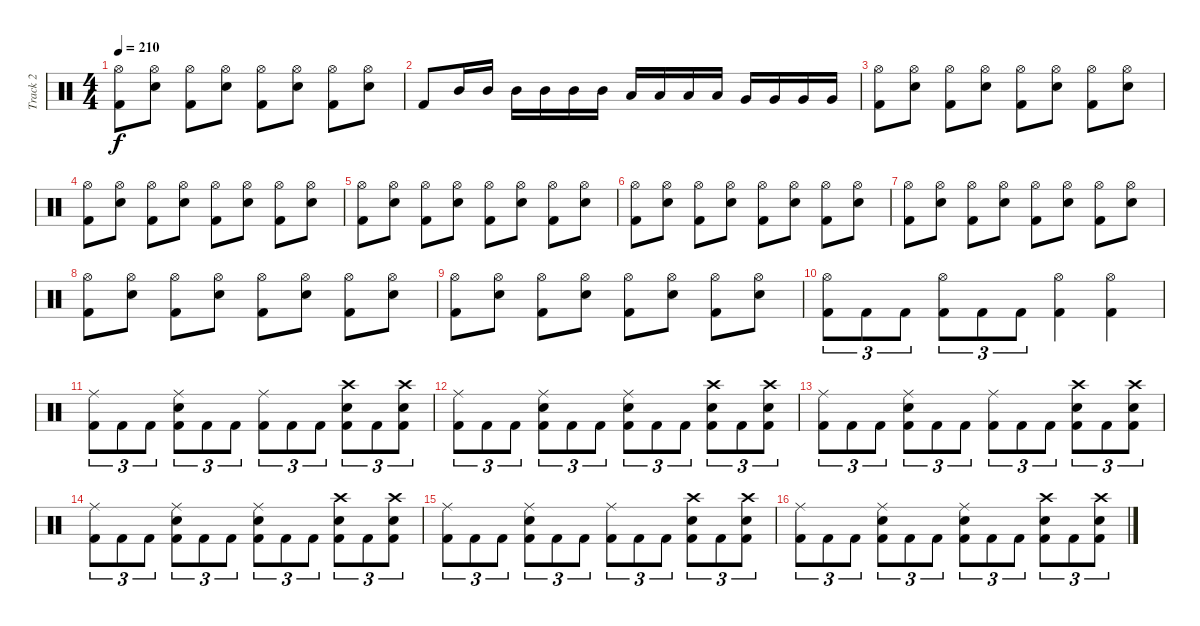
\track ("Track 2" "Track 2") {instrument percussion}
\staff {score}
\articulation defaults
\ts (4 4)
\tempo 210
\clef neutral
\ks c
("Hi-Hat (open)" "Kick (hit) 2").8{dy f} ("Hi-Hat (open)" "Snare (hit) 2").8 ("Hi-Hat (open)" "Kick (hit) 2").8 ("Hi-Hat (open)" "Snare (hit) 2").8 ("Hi-Hat (open)" "Kick (hit) 2").8 ("Hi-Hat (open)" "Snare (hit) 2").8 ("Hi-Hat (open)" "Kick (hit) 2").8 ("Hi-Hat (open)" "Snare (hit) 2").8 |
"Kick (hit) 2".8 "Mid Tom (hit)".16 "Mid Tom (hit)".16 "Mid Tom (hit)".16 "Mid Tom (hit)".16 "Mid Tom (hit)".16 "Mid Tom (hit)".16 "Low Tom (hit)".16 "Low Tom (hit)".16 "Low Tom (hit)".16 "Low Tom (hit)".16 "Very Low Tom (hit)".16 "Very Low Tom (hit)".16 "Very Low Tom (hit)".16 "Very Low Tom (hit)".16 |
("Hi-Hat (open)" "Kick (hit) 2").8 ("Hi-Hat (open)" "Snare (hit) 2").8 ("Hi-Hat (open)" "Kick (hit) 2").8 ("Hi-Hat (open)" "Snare (hit) 2").8 ("Hi-Hat (open)" "Kick (hit) 2").8 ("Hi-Hat (open)" "Snare (hit) 2").8 ("Hi-Hat (open)" "Kick (hit) 2").8 ("Hi-Hat (open)" "Snare (hit) 2").8 |
("Hi-Hat (open)" "Kick (hit) 2").8 ("Hi-Hat (open)" "Snare (hit) 2").8 ("Hi-Hat (open)" "Kick (hit) 2").8 ("Hi-Hat (open)" "Snare (hit) 2").8 ("Hi-Hat (open)" "Kick (hit) 2").8 ("Hi-Hat (open)" "Snare (hit) 2").8 ("Hi-Hat (open)" "Kick (hit) 2").8 ("Hi-Hat (open)" "Snare (hit) 2").8 |
("Hi-Hat (open)" "Kick (hit) 2").8 ("Hi-Hat (open)" "Snare (hit) 2").8 ("Hi-Hat (open)" "Kick (hit) 2").8 ("Hi-Hat (open)" "Snare (hit) 2").8 ("Hi-Hat (open)" "Kick (hit) 2").8 ("Hi-Hat (open)" "Snare (hit) 2").8 ("Hi-Hat (open)" "Kick (hit) 2").8 ("Hi-Hat (open)" "Snare (hit) 2").8 |
("Hi-Hat (open)" "Kick (hit) 2").8 ("Hi-Hat (open)" "Snare (hit) 2").8 ("Hi-Hat (open)" "Kick (hit) 2").8 ("Hi-Hat (open)" "Snare (hit) 2").8 ("Hi-Hat (open)" "Kick (hit) 2").8 ("Hi-Hat (open)" "Snare (hit) 2").8 ("Hi-Hat (open)" "Kick (hit) 2").8 ("Hi-Hat (open)" "Snare (hit) 2").8 |
("Hi-Hat (open)" "Kick (hit) 2").8 ("Hi-Hat (open)" "Snare (hit) 2").8 ("Hi-Hat (open)" "Kick (hit) 2").8 ("Hi-Hat (open)" "Snare (hit) 2").8 ("Hi-Hat (open)" "Kick (hit) 2").8 ("Hi-Hat (open)" "Snare (hit) 2").8 ("Hi-Hat (open)" "Kick (hit) 2").8 ("Hi-Hat (open)" "Snare (hit) 2").8 |
("Hi-Hat (open)" "Kick (hit) 2").8 ("Hi-Hat (open)" "Snare (hit) 2").8 ("Hi-Hat (open)" "Kick (hit) 2").8 ("Hi-Hat (open)" "Snare (hit) 2").8 ("Hi-Hat (open)" "Kick (hit) 2").8 ("Hi-Hat (open)" "Snare (hit) 2").8 ("Hi-Hat (open)" "Kick (hit) 2").8 ("Hi-Hat (open)" "Snare (hit) 2").8 |
("Hi-Hat (open)" "Kick (hit) 2").8 ("Hi-Hat (open)" "Snare (hit) 2").8 ("Hi-Hat (open)" "Kick (hit) 2").8 ("Hi-Hat (open)" "Snare (hit) 2").8 ("Hi-Hat (open)" "Kick (hit) 2").8 ("Hi-Hat (open)" "Snare (hit) 2").8 ("Hi-Hat (open)" "Kick (hit) 2").8 ("Hi-Hat (open)" "Snare (hit) 2").8 |
("Hi-Hat (open)" "Kick (hit) 2").8{tu (3 2)} "Kick (hit) 2".8{tu (3 2)} "Kick (hit) 2".8{tu (3 2)} ("Hi-Hat (open)" "Kick (hit) 2").8{tu (3 2)} "Kick (hit) 2".8{tu (3 2)} "Kick (hit) 2".8{tu (3 2)} ("Hi-Hat (open)" "Kick (hit) 2").4 ("Hi-Hat (open)" "Kick (hit) 2").4 |
("Ride (middle)" "Kick (hit) 2").8{tu (3 2)} "Kick (hit) 2".8{tu (3 2)} "Kick (hit) 2".8{tu (3 2)} ("Ride (middle)" "Snare (hit) 2" "Kick (hit) 2").8{tu (3 2)} "Kick (hit) 2".8{tu (3 2)} "Kick (hit) 2".8{tu (3 2)} ("Ride (middle)" "Kick (hit) 2").8{tu (3 2)} "Kick (hit) 2".8{tu (3 2)} "Kick (hit) 2".8{tu (3 2)} ("Crash high (hit)" "Snare (hit) 2" "Kick (hit) 2").8{tu (3 2)} "Kick (hit) 2".8{tu (3 2)} ("Crash high (hit)" "Snare (hit) 2" "Kick (hit) 2").8{tu (3 2)} |
("Ride (middle)" "Kick (hit) 2").8{tu (3 2)} "Kick (hit) 2".8{tu (3 2)} "Kick (hit) 2".8{tu (3 2)} ("Ride (middle)" "Snare (hit) 2" "Kick (hit) 2").8{tu (3 2)} "Kick (hit) 2".8{tu (3 2)} "Kick (hit) 2".8{tu (3 2)} ("Ride (middle)" "Snare (hit) 2" "Kick (hit) 2").8{tu (3 2)} "Kick (hit) 2".8{tu (3 2)} "Kick (hit) 2".8{tu (3 2)} ("Crash high (hit)" "Snare (hit) 2" "Kick (hit) 2").8{tu (3 2)} "Kick (hit) 2".8{tu (3 2)} ("Crash high (hit)" "Snare (hit) 2" "Kick (hit) 2").8{tu (3 2)} |
("Ride (middle)" "Kick (hit) 2").8{tu (3 2)} "Kick (hit) 2".8{tu (3 2)} "Kick (hit) 2".8{tu (3 2)} ("Ride (middle)" "Snare (hit) 2" "Kick (hit) 2").8{tu (3 2)} "Kick (hit) 2".8{tu (3 2)} "Kick (hit) 2".8{tu (3 2)} ("Ride (middle)" "Kick (hit) 2").8{tu (3 2)} "Kick (hit) 2".8{tu (3 2)} "Kick (hit) 2".8{tu (3 2)} ("Crash high (hit)" "Snare (hit) 2" "Kick (hit) 2").8{tu (3 2)} "Kick (hit) 2".8{tu (3 2)} ("Crash high (hit)" "Snare (hit) 2" "Kick (hit) 2").8{tu (3 2)} |
("Ride (middle)" "Kick (hit) 2").8{tu (3 2)} "Kick (hit) 2".8{tu (3 2)} "Kick (hit) 2".8{tu (3 2)} ("Ride (middle)" "Snare (hit) 2" "Kick (hit) 2").8{tu (3 2)} "Kick (hit) 2".8{tu (3 2)} "Kick (hit) 2".8{tu (3 2)} ("Ride (middle)" "Snare (hit) 2" "Kick (hit) 2").8{tu (3 2)} "Kick (hit) 2".8{tu (3 2)} "Kick (hit) 2".8{tu (3 2)} ("Crash high (hit)" "Snare (hit) 2" "Kick (hit) 2").8{tu (3 2)} "Kick (hit) 2".8{tu (3 2)} ("Crash high (hit)" "Snare (hit) 2" "Kick (hit) 2").8{tu (3 2)} |
("Ride (middle)" "Kick (hit) 2").8{tu (3 2)} "Kick (hit) 2".8{tu (3 2)} "Kick (hit) 2".8{tu (3 2)} ("Ride (middle)" "Snare (hit) 2" "Kick (hit) 2").8{tu (3 2)} "Kick (hit) 2".8{tu (3 2)} "Kick (hit) 2".8{tu (3 2)} ("Ride (middle)" "Kick (hit) 2").8{tu (3 2)} "Kick (hit) 2".8{tu (3 2)} "Kick (hit) 2".8{tu (3 2)} ("Crash high (hit)" "Snare (hit) 2" "Kick (hit) 2").8{tu (3 2)} "Kick (hit) 2".8{tu (3 2)} ("Crash high (hit)" "Snare (hit) 2" "Kick (hit) 2").8{tu (3 2)} |
("Ride (middle)" "Kick (hit) 2").8{tu (3 2)} "Kick (hit) 2".8{tu (3 2)} "Kick (hit) 2".8{tu (3 2)} ("Ride (middle)" "Snare (hit) 2" "Kick (hit) 2").8{tu (3 2)} "Kick (hit) 2".8{tu (3 2)} "Kick (hit) 2".8{tu (3 2)} ("Ride (middle)" "Snare (hit) 2" "Kick (hit) 2").8{tu (3 2)} "Kick (hit) 2".8{tu (3 2)} "Kick (hit) 2".8{tu (3 2)} ("Crash high (hit)" "Snare (hit) 2" "Kick (hit) 2").8{tu (3 2)} "Kick (hit) 2".8{tu (3 2)} ("Crash high (hit)" "Snare (hit) 2" "Kick (hit) 2").8{tu (3 2)}
